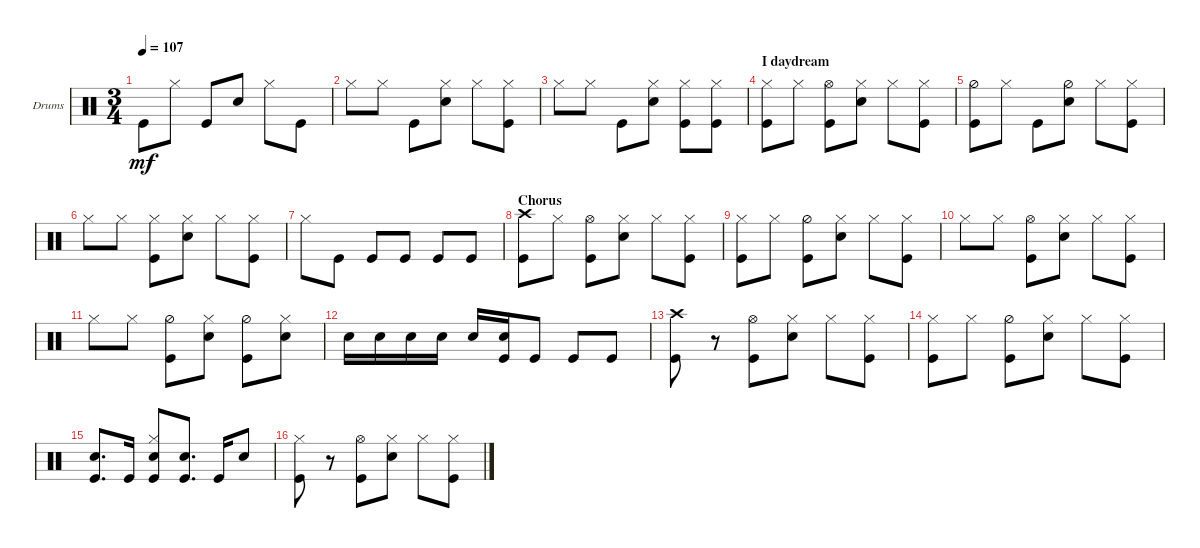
\defaultSystemsLayout 4
\bracketExtendMode groupsimilarinstruments
\firstSystemTrackNameOrientation horizontal
\otherSystemsTrackNameOrientation horizontal
\track ("Drums" "Drums") {instrument percussion}
\staff {score}
\articulation defaults
\ts (3 4)
\tempo 107
\clef neutral
\ks c "Kick (hit)".8{dy mf} "Hi-Hat (closed)".8 "Kick (hit)".8 "Snare (hit) 2".8 "Hi-Hat (closed)".8 "Kick (hit)".8
|
"Hi-Hat (closed)".8 "Hi-Hat (closed)".8 "Kick (hit)".8 ("Snare (hit) 2" "Hi-Hat (closed)").8 "Hi-Hat (closed)".8 ("Kick (hit)" "Hi-Hat (closed)").8 |
"Hi-Hat (closed)".8 "Hi-Hat (closed)".8 "Kick (hit)".8 ("Snare (hit) 2" "Hi-Hat (closed)").8 ("Kick (hit)" "Hi-Hat (closed)").8 ("Kick (hit)" "Hi-Hat (closed)").8 |
\section ("" "I daydream")
("Kick (hit)" "Hi-Hat (closed)").8 "Hi-Hat (closed)".8 ("Hi-Hat (open)" "Kick (hit)").8 ("Hi-Hat (closed)" "Snare (hit) 2").8 "Hi-Hat (closed)".8 ("Kick (hit)" "Hi-Hat (closed)").8 |
("Kick (hit)" "Hi-Hat (half)").8 "Hi-Hat (closed)".8 "Kick (hit)".8 ("Hi-Hat (half)" "Snare (hit) 2").8 "Hi-Hat (closed)".8 ("Kick (hit)" "Hi-Hat (closed)").8 |
"Hi-Hat (closed)".8 "Hi-Hat (closed)".8 ("Kick (hit)" "Hi-Hat (closed)").8 ("Snare (hit) 2" "Hi-Hat (closed)").8 "Hi-Hat (closed)".8 ("Kick (hit)" "Hi-Hat (closed)").8 |
"Hi-Hat (closed)".8 "Kick (hit)".8 "Kick (hit)".8 "Kick (hit)".8 "Kick (hit)".8 "Kick (hit)".8 |
\section ("" "Chorus")
("Kick (hit)" "Crash high (hit)").8 "Hi-Hat (closed)".8 ("Hi-Hat (open)" "Kick (hit)").8 ("Snare (hit) 2" "Hi-Hat (closed)").8 "Hi-Hat (closed)".8 ("Hi-Hat (closed)" "Kick (hit)").8 |
("Hi-Hat (closed)" "Kick (hit)").8 "Hi-Hat (closed)".8 ("Hi-Hat (half)" "Kick (hit)").8 ("Hi-Hat (closed)" "Snare (hit) 2").8 "Hi-Hat (closed)".8 ("Hi-Hat (closed)" "Kick (hit)").8 |
"Hi-Hat (closed)".8 "Hi-Hat (closed)".8 ("Hi-Hat (open)" "Kick (hit)").8 ("Snare (hit) 2" "Hi-Hat (closed)").8 "Hi-Hat (closed)".8 ("Kick (hit)" "Hi-Hat (closed)").8 |
"Hi-Hat (closed)".8 "Hi-Hat (closed)".8 ("Hi-Hat (half)" "Kick (hit)").8 ("Hi-Hat (closed)" "Snare (hit) 2").8 ("Hi-Hat (half)" "Kick (hit)").8 ("Hi-Hat (closed)" "Snare (hit) 2").8 |
"Snare (hit) 2".16 "Snare (hit) 2".16 "Snare (hit) 2".16 "Snare (hit) 2".16 "Snare (hit) 2".16 ("Kick (hit)" "Snare (hit) 2").16 "Kick (hit)".8 "Kick (hit)".8 "Kick (hit)".8 |
("Kick (hit)" "Crash high (hit)").8 r.8 ("Hi-Hat (open)" "Kick (hit)").8 ("Snare (hit) 2" "Hi-Hat (closed)").8 "Hi-Hat (closed)".8 ("Hi-Hat (closed)" "Kick (hit)").8 |
("Hi-Hat (closed)" "Kick (hit)").8 "Hi-Hat (closed)".8 ("Hi-Hat (half)" "Kick (hit)").8 ("Hi-Hat (closed)" "Snare (hit) 2").8 "Hi-Hat (closed)".8 ("Hi-Hat (closed)" "Kick (hit)").8 |
("Kick (hit)" "Snare (hit) 2").8{d} "Kick (hit)".16 ("Hi-Hat (closed)" "Kick (hit)" "Snare (hit) 2").8 ("Kick (hit)" "Snare (hit) 2").8{d} "Kick (hit)".16 "Snare (hit) 2".8 |
("Kick (hit)" "Hi-Hat (closed)").8 r.8 ("Hi-Hat (open)" "Kick (hit)").8 ("Snare (hit) 2" "Hi-Hat (closed)").8 "Hi-Hat (closed)".8 ("Hi-Hat (closed)" "Kick (hit)").8
